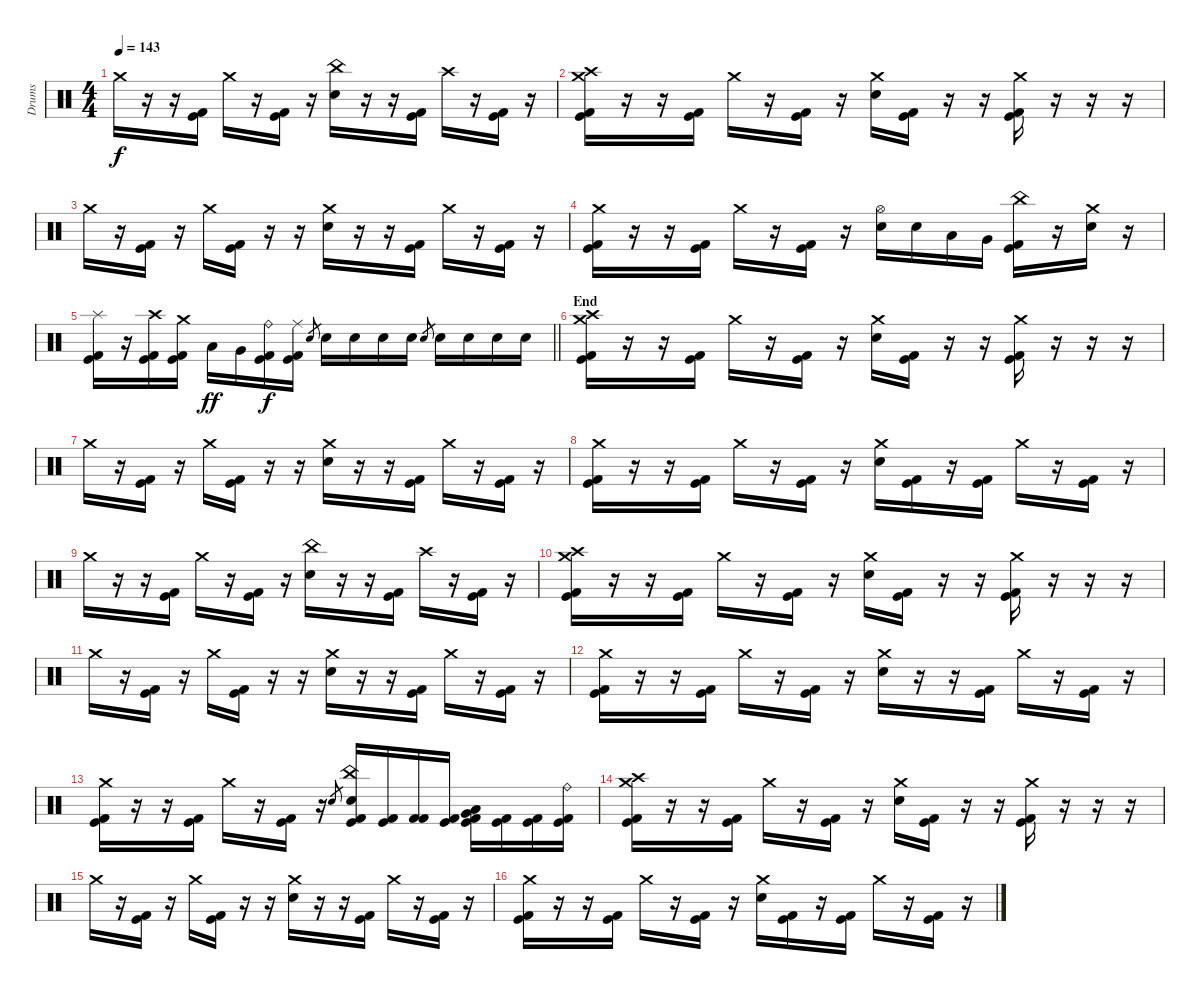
\track ("Drums" "Drums") {instrument percussion}
\staff {score}
\articulation defaults
\ts (4 4)
\tempo 143
\clef neutral
\ks c "Crash medium (hit)".16{dy f}
r.16 r.16 ("Kick (hit)" "Kick (hit) 2").16 "Crash medium (hit)".16 r.16 ("Kick (hit)" "Kick (hit) 2").16 r.16 ("China (hit)" "Electric Snare (hit)").16 r.16 r.16 ("Kick (hit)" "Kick (hit) 2").16 "Crash high (hit)".16 r.16 ("Kick (hit)" "Kick (hit) 2").16 r.16 |
("Crash medium (hit)" "Crash high (hit)" "Kick (hit)" "Kick (hit) 2").16 r.16 r.16 ("Kick (hit)" "Kick (hit) 2").16 "Crash medium (hit)".16 r.16 ("Kick (hit)" "Kick (hit) 2").16 r.16 ("Crash medium (hit)" "Electric Snare (hit)").16 ("Kick (hit)" "Kick (hit) 2").16 r.16 r.16 ("Crash medium (hit)" "Kick (hit)" "Kick (hit) 2").16 r.16 r.16 r.16 |
"Crash medium (hit)".16 r.16 ("Kick (hit)" "Kick (hit) 2").16 r.16 "Crash medium (hit)".16 ("Kick (hit)" "Kick (hit) 2").16 r.16 r.16 ("Crash medium (hit)" "Electric Snare (hit)").16 r.16 r.16 ("Kick (hit)" "Kick (hit) 2").16 "Crash medium (hit)".16 r.16 ("Kick (hit)" "Kick (hit) 2").16 r.16 |
("Crash medium (hit)" "Kick (hit)" "Kick (hit) 2").16 r.16 r.16 ("Kick (hit)" "Kick (hit) 2").16 "Crash medium (hit)".16 r.16 ("Kick (hit)" "Kick (hit) 2").16 r.16 ("Hi-Hat (open)" "Electric Snare (hit)").16 "Electric Snare (hit)".16 "Low Tom (hit)".16 "Very Low Tom (hit)".16 ("China (hit)" "Kick (hit)" "Kick (hit) 2").16 r.16 ("Crash medium (hit)" "Electric Snare (hit)").16 r.16 |
\barLineRight lightlight
("Splash (hit)" "Kick (hit)" "Kick (hit) 2").16 r.16 ("Crash high (hit)" "Kick (hit)" "Kick (hit) 2").16 ("Crash medium (hit)" "Kick (hit)" "Kick (hit) 2").16 "Low Tom (hit)".16{dy ff} "Very Low Tom (hit)".16 ("Ride (bell)" "Kick (hit)" "Kick (hit) 2").16{dy f} ("Ride (middle)" "Kick (hit)" "Kick (hit) 2").16 "Electric Snare (hit)".8{gr} "Electric Snare (hit)".16 "Electric Snare (hit)".16 "Electric Snare (hit)".16 "Electric Snare (hit)".16 "Electric Snare (hit)".8{gr} "Electric Snare (hit)".16 "Electric Snare (hit)".16 "Electric Snare (hit)".16 "Electric Snare (hit)".16 |
\section ("" "End")
("Crash medium (hit)" "Crash high (hit)" "Kick (hit)" "Kick (hit) 2").16 r.16 r.16 ("Kick (hit)" "Kick (hit) 2").16 "Crash medium (hit)".16 r.16 ("Kick (hit)" "Kick (hit) 2").16 r.16 ("Crash medium (hit)" "Electric Snare (hit)").16 ("Kick (hit)" "Kick (hit) 2").16 r.16 r.16 ("Crash medium (hit)" "Kick (hit)" "Kick (hit) 2").16 r.16 r.16 r.16 |
"Crash medium (hit)".16 r.16 ("Kick (hit)" "Kick (hit) 2").16 r.16 "Crash medium (hit)".16 ("Kick (hit)" "Kick (hit) 2").16 r.16 r.16 ("Crash medium (hit)" "Electric Snare (hit)").16 r.16 r.16 ("Kick (hit)" "Kick (hit) 2").16 "Crash medium (hit)".16 r.16 ("Kick (hit)" "Kick (hit) 2").16 r.16 |
("Crash medium (hit)" "Kick (hit)" "Kick (hit) 2").16 r.16 r.16 ("Kick (hit)" "Kick (hit) 2").16 "Crash medium (hit)".16 r.16 ("Kick (hit)" "Kick (hit) 2").16 r.16 ("Crash medium (hit)" "Electric Snare (hit)").16 ("Kick (hit)" "Kick (hit) 2").16 r.16 ("Kick (hit)" "Kick (hit) 2").16 "Crash medium (hit)".16 r.16 ("Kick (hit)" "Kick (hit) 2").16 r.16 |
"Crash medium (hit)".16 r.16 r.16 ("Kick (hit)" "Kick (hit) 2").16 "Crash medium (hit)".16 r.16 ("Kick (hit)" "Kick (hit) 2").16 r.16 ("China (hit)" "Electric Snare (hit)").16 r.16 r.16 ("Kick (hit)" "Kick (hit) 2").16 "Crash high (hit)".16 r.16 ("Kick (hit)" "Kick (hit) 2").16 r.16 |
("Crash medium (hit)" "Crash high (hit)" "Kick (hit)" "Kick (hit) 2").16 r.16 r.16 ("Kick (hit)" "Kick (hit) 2").16 "Crash medium (hit)".16 r.16 ("Kick (hit)" "Kick (hit) 2").16 r.16 ("Crash medium (hit)" "Electric Snare (hit)").16 ("Kick (hit)" "Kick (hit) 2").16 r.16 r.16 ("Crash medium (hit)" "Kick (hit)" "Kick (hit) 2").16 r.16 r.16 r.16 |
"Crash medium (hit)".16 r.16 ("Kick (hit)" "Kick (hit) 2").16 r.16 "Crash medium (hit)".16 ("Kick (hit)" "Kick (hit) 2").16 r.16 r.16 ("Crash medium (hit)" "Electric Snare (hit)").16 r.16 r.16 ("Kick (hit)" "Kick (hit) 2").16 "Crash medium (hit)".16 r.16 ("Kick (hit)" "Kick (hit) 2").16 r.16 |
("Crash medium (hit)" "Kick (hit)" "Kick (hit) 2").16 r.16 r.16 ("Kick (hit)" "Kick (hit) 2").16 "Crash medium (hit)".16 r.16 ("Kick (hit)" "Kick (hit) 2").16 r.16 ("Crash medium (hit)" "Electric Snare (hit)").16 r.16 r.16 ("Kick (hit)" "Kick (hit) 2").16 "Crash medium (hit)".16 r.16 ("Kick (hit)" "Kick (hit) 2").16 r.16 |
("Crash medium (hit)" "Kick (hit)" "Kick (hit) 2").16 r.16 r.16 ("Kick (hit)" "Kick (hit) 2").16 "Crash medium (hit)".16 r.16 ("Kick (hit)" "Kick (hit) 2").16 r.16 "Electric Snare (hit)".8{gr} ("China (hit)" "Electric Snare (hit)" "Kick (hit)" "Kick (hit) 2").16 ("Kick (hit)" "Kick (hit) 2").16 ("Kick (hit) 2" "Kick (hit) 2").16 ("Kick (hit)" "Kick (hit) 2").16 ("Low Floor Tom (hit)" "Very Low Tom (hit)" "Kick (hit)" "Kick (hit) 2").16 ("Kick (hit)" "Kick (hit) 2").16 ("Kick (hit)" "Kick (hit) 2").16 ("Ride (bell)" "Kick (hit)" "Kick (hit) 2").16 |
("Crash medium (hit)" "Crash high (hit)" "Kick (hit)" "Kick (hit) 2").16{volume 8} r.16 r.16 ("Kick (hit)" "Kick (hit) 2").16 "Crash medium (hit)".16 r.16 ("Kick (hit)" "Kick (hit) 2").16 r.16 ("Crash medium (hit)" "Electric Snare (hit)").16 ("Kick (hit)" "Kick (hit) 2").16 r.16 r.16 ("Crash medium (hit)" "Kick (hit)" "Kick (hit) 2").16 r.16 r.16 r.16 |
"Crash medium (hit)".16 r.16 ("Kick (hit)" "Kick (hit) 2").16 r.16 "Crash medium (hit)".16 ("Kick (hit)" "Kick (hit) 2").16 r.16 r.16 ("Crash medium (hit)" "Electric Snare (hit)").16 r.16 r.16 ("Kick (hit)" "Kick (hit) 2").16 "Crash medium (hit)".16 r.16 ("Kick (hit)" "Kick (hit) 2").16 r.16 |
("Crash medium (hit)" "Kick (hit)" "Kick (hit) 2").16 r.16 r.16 ("Kick (hit)" "Kick (hit) 2").16 "Crash medium (hit)".16 r.16 ("Kick (hit)" "Kick (hit) 2").16 r.16 ("Crash medium (hit)" "Electric Snare (hit)").16 ("Kick (hit)" "Kick (hit) 2").16 r.16 ("Kick (hit)" "Kick (hit) 2").16 "Crash medium (hit)".16 r.16 ("Kick (hit)" "Kick (hit) 2").16 r.16
